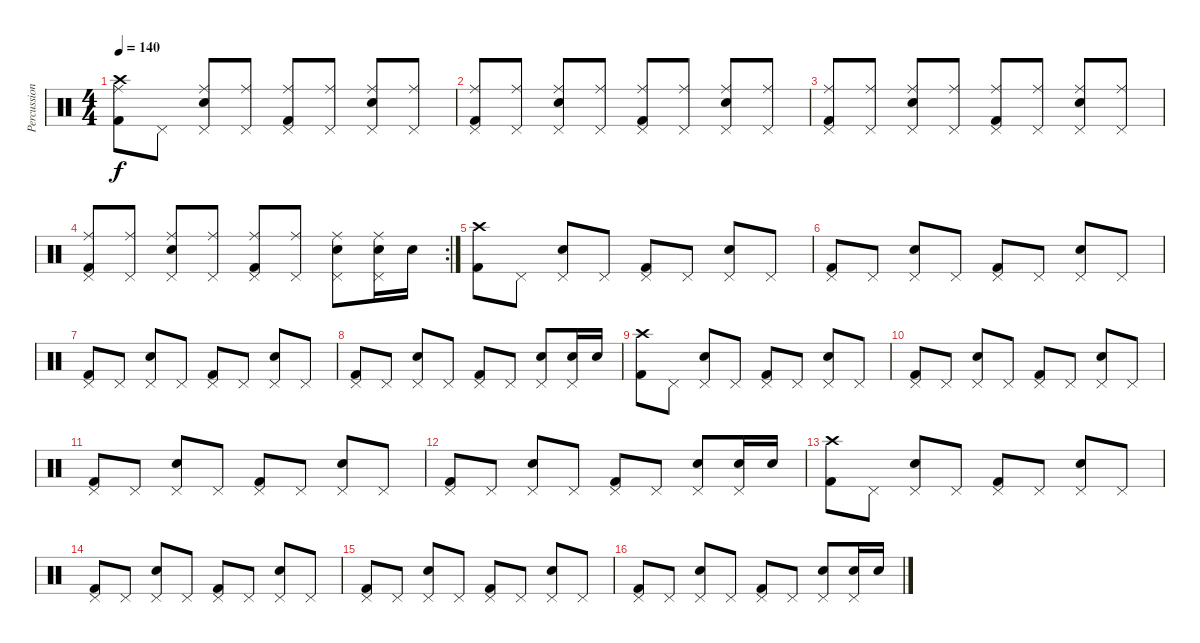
\track ("Percussion" "Percussion") {instrument percussion}
\staff {score}
\articulation defaults
\ts (4 4)
\tempo 140
\clef neutral
\ks c
("Crash high (hit)" "Kick (hit) 2" "Ride (middle)").8{dy f} "Pedal Hi-Hat (hit)".8 ("Pedal Hi-Hat (hit)" "Electric Snare (hit)" "Ride (middle)").8 ("Pedal Hi-Hat (hit)" "Ride (middle)").8 ("Pedal Hi-Hat (hit)" "Kick (hit) 2" "Ride (middle)").8 ("Pedal Hi-Hat (hit)" "Ride (middle)").8 ("Pedal Hi-Hat (hit)" "Electric Snare (hit)" "Ride (middle)").8 ("Pedal Hi-Hat (hit)" "Ride (middle)").8 |
("Pedal Hi-Hat (hit)" "Kick (hit) 2" "Ride (middle)").8 ("Pedal Hi-Hat (hit)" "Ride (middle)").8 ("Pedal Hi-Hat (hit)" "Electric Snare (hit)" "Ride (middle)").8 ("Pedal Hi-Hat (hit)" "Ride (middle)").8 ("Pedal Hi-Hat (hit)" "Kick (hit) 2" "Ride (middle)").8 ("Pedal Hi-Hat (hit)" "Ride (middle)").8 ("Pedal Hi-Hat (hit)" "Electric Snare (hit)" "Ride (middle)").8 ("Pedal Hi-Hat (hit)" "Ride (middle)").8 |
("Pedal Hi-Hat (hit)" "Kick (hit) 2" "Ride (middle)").8 ("Pedal Hi-Hat (hit)" "Ride (middle)").8 ("Pedal Hi-Hat (hit)" "Electric Snare (hit)" "Ride (middle)").8 ("Pedal Hi-Hat (hit)" "Ride (middle)").8 ("Pedal Hi-Hat (hit)" "Kick (hit) 2" "Ride (middle)").8 ("Pedal Hi-Hat (hit)" "Ride (middle)").8 ("Pedal Hi-Hat (hit)" "Electric Snare (hit)" "Ride (middle)").8 ("Pedal Hi-Hat (hit)" "Ride (middle)").8 |
\rc 2
("Pedal Hi-Hat (hit)" "Kick (hit) 2" "Ride (middle)").8 ("Pedal Hi-Hat (hit)" "Ride (middle)").8 ("Pedal Hi-Hat (hit)" "Electric Snare (hit)" "Ride (middle)").8 ("Pedal Hi-Hat (hit)" "Ride (middle)").8 ("Pedal Hi-Hat (hit)" "Kick (hit) 2" "Ride (middle)").8 ("Pedal Hi-Hat (hit)" "Ride (middle)").8 ("Pedal Hi-Hat (hit)" "Electric Snare (hit)" "Ride (middle)").8 ("Pedal Hi-Hat (hit)" "Electric Snare (hit)" "Ride (middle)").16 "Electric Snare (hit)".16 |
("Crash high (hit)" "Kick (hit) 2").8 "Pedal Hi-Hat (hit)".8 ("Pedal Hi-Hat (hit)" "Electric Snare (hit)").8 "Pedal Hi-Hat (hit)".8 ("Pedal Hi-Hat (hit)" "Kick (hit) 2").8 "Pedal Hi-Hat (hit)".8 ("Pedal Hi-Hat (hit)" "Electric Snare (hit)").8 "Pedal Hi-Hat (hit)".8 |
("Pedal Hi-Hat (hit)" "Kick (hit) 2").8 "Pedal Hi-Hat (hit)".8 ("Pedal Hi-Hat (hit)" "Electric Snare (hit)").8 "Pedal Hi-Hat (hit)".8 ("Pedal Hi-Hat (hit)" "Kick (hit) 2").8 "Pedal Hi-Hat (hit)".8 ("Pedal Hi-Hat (hit)" "Electric Snare (hit)").8 "Pedal Hi-Hat (hit)".8 |
("Pedal Hi-Hat (hit)" "Kick (hit) 2").8 "Pedal Hi-Hat (hit)".8 ("Pedal Hi-Hat (hit)" "Electric Snare (hit)").8 "Pedal Hi-Hat (hit)".8 ("Pedal Hi-Hat (hit)" "Kick (hit) 2").8 "Pedal Hi-Hat (hit)".8 ("Pedal Hi-Hat (hit)" "Electric Snare (hit)").8 "Pedal Hi-Hat (hit)".8 |
("Pedal Hi-Hat (hit)" "Kick (hit) 2").8 "Pedal Hi-Hat (hit)".8 ("Pedal Hi-Hat (hit)" "Electric Snare (hit)").8 "Pedal Hi-Hat (hit)".8 ("Pedal Hi-Hat (hit)" "Kick (hit) 2").8 "Pedal Hi-Hat (hit)".8 ("Pedal Hi-Hat (hit)" "Electric Snare (hit)").8 ("Pedal Hi-Hat (hit)" "Electric Snare (hit)").16 "Electric Snare (hit)".16 |
("Crash high (hit)" "Kick (hit) 2").8 "Pedal Hi-Hat (hit)".8 ("Pedal Hi-Hat (hit)" "Electric Snare (hit)").8 "Pedal Hi-Hat (hit)".8 ("Pedal Hi-Hat (hit)" "Kick (hit) 2").8 "Pedal Hi-Hat (hit)".8 ("Pedal Hi-Hat (hit)" "Electric Snare (hit)").8 "Pedal Hi-Hat (hit)".8 |
("Pedal Hi-Hat (hit)" "Kick (hit) 2").8 "Pedal Hi-Hat (hit)".8 ("Pedal Hi-Hat (hit)" "Electric Snare (hit)").8 "Pedal Hi-Hat (hit)".8 ("Pedal Hi-Hat (hit)" "Kick (hit) 2").8 "Pedal Hi-Hat (hit)".8 ("Pedal Hi-Hat (hit)" "Electric Snare (hit)").8 "Pedal Hi-Hat (hit)".8 |
("Pedal Hi-Hat (hit)" "Kick (hit) 2").8 "Pedal Hi-Hat (hit)".8 ("Pedal Hi-Hat (hit)" "Electric Snare (hit)").8 "Pedal Hi-Hat (hit)".8 ("Pedal Hi-Hat (hit)" "Kick (hit) 2").8 "Pedal Hi-Hat (hit)".8 ("Pedal Hi-Hat (hit)" "Electric Snare (hit)").8 "Pedal Hi-Hat (hit)".8 |
("Pedal Hi-Hat (hit)" "Kick (hit) 2").8 "Pedal Hi-Hat (hit)".8 ("Pedal Hi-Hat (hit)" "Electric Snare (hit)").8 "Pedal Hi-Hat (hit)".8 ("Pedal Hi-Hat (hit)" "Kick (hit) 2").8 "Pedal Hi-Hat (hit)".8 ("Pedal Hi-Hat (hit)" "Electric Snare (hit)").8 ("Pedal Hi-Hat (hit)" "Electric Snare (hit)").16 "Electric Snare (hit)".16 |
("Crash high (hit)" "Kick (hit) 2").8 "Pedal Hi-Hat (hit)".8 ("Pedal Hi-Hat (hit)" "Electric Snare (hit)").8 "Pedal Hi-Hat (hit)".8 ("Pedal Hi-Hat (hit)" "Kick (hit) 2").8 "Pedal Hi-Hat (hit)".8 ("Pedal Hi-Hat (hit)" "Electric Snare (hit)").8 "Pedal Hi-Hat (hit)".8 |
("Pedal Hi-Hat (hit)" "Kick (hit) 2").8 "Pedal Hi-Hat (hit)".8 ("Pedal Hi-Hat (hit)" "Electric Snare (hit)").8 "Pedal Hi-Hat (hit)".8 ("Pedal Hi-Hat (hit)" "Kick (hit) 2").8 "Pedal Hi-Hat (hit)".8 ("Pedal Hi-Hat (hit)" "Electric Snare (hit)").8 "Pedal Hi-Hat (hit)".8 |
("Pedal Hi-Hat (hit)" "Kick (hit) 2").8 "Pedal Hi-Hat (hit)".8 ("Pedal Hi-Hat (hit)" "Electric Snare (hit)").8 "Pedal Hi-Hat (hit)".8 ("Pedal Hi-Hat (hit)" "Kick (hit) 2").8 "Pedal Hi-Hat (hit)".8 ("Pedal Hi-Hat (hit)" "Electric Snare (hit)").8 "Pedal Hi-Hat (hit)".8 |
("Pedal Hi-Hat (hit)" "Kick (hit) 2").8 "Pedal Hi-Hat (hit)".8 ("Pedal Hi-Hat (hit)" "Electric Snare (hit)").8 "Pedal Hi-Hat (hit)".8 ("Pedal Hi-Hat (hit)" "Kick (hit) 2").8 "Pedal Hi-Hat (hit)".8 ("Pedal Hi-Hat (hit)" "Electric Snare (hit)").8 ("Pedal Hi-Hat (hit)" "Electric Snare (hit)").16 "Electric Snare (hit)".16
